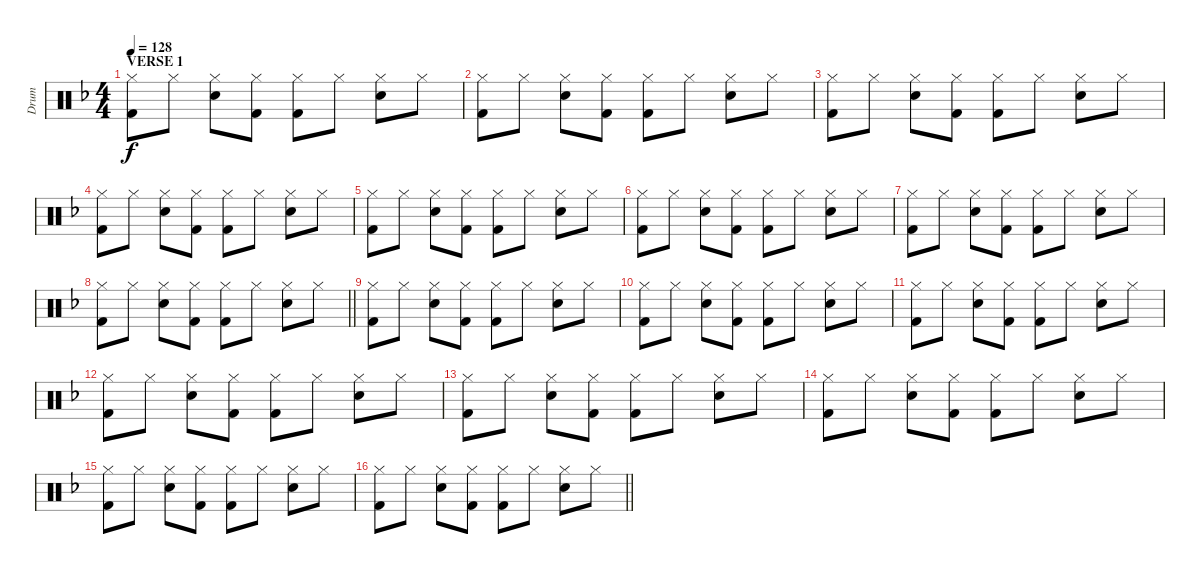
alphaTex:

\track ("Drum" "Drum") {instrument percussion}
\staff {score}
\articulation defaults
\ts (4 4)
\section ("" "VERSE 1")
\tempo 128
\clef neutral
\ks f
("Hi-Hat (closed)" "Kick (hit) 2").8{dy f} "Hi-Hat (closed)".8 ("Hi-Hat (closed)" "Electric Snare (hit)").8 ("Hi-Hat (closed)" "Kick (hit) 2").8 ("Hi-Hat (closed)" "Kick (hit) 2").8 "Hi-Hat (closed)".8 ("Hi-Hat (closed)" "Electric Snare (hit)").8 "Hi-Hat (closed)".8 |
("Hi-Hat (closed)" "Kick (hit) 2").8 "Hi-Hat (closed)".8 ("Hi-Hat (closed)" "Electric Snare (hit)").8 ("Hi-Hat (closed)" "Kick (hit) 2").8 ("Hi-Hat (closed)" "Kick (hit) 2").8 "Hi-Hat (closed)".8 ("Hi-Hat (closed)" "Electric Snare (hit)").8 "Hi-Hat (closed)".8 |
("Hi-Hat (closed)" "Kick (hit) 2").8 "Hi-Hat (closed)".8 ("Hi-Hat (closed)" "Electric Snare (hit)").8 ("Hi-Hat (closed)" "Kick (hit) 2").8 ("Hi-Hat (closed)" "Kick (hit) 2").8 "Hi-Hat (closed)".8 ("Hi-Hat (closed)" "Electric Snare (hit)").8 "Hi-Hat (closed)".8 |
("Hi-Hat (closed)" "Kick (hit) 2").8 "Hi-Hat (closed)".8 ("Hi-Hat (closed)" "Electric Snare (hit)").8 ("Hi-Hat (closed)" "Kick (hit) 2").8 ("Hi-Hat (closed)" "Kick (hit) 2").8 "Hi-Hat (closed)".8 ("Hi-Hat (closed)" "Electric Snare (hit)").8 "Hi-Hat (closed)".8 |
("Hi-Hat (closed)" "Kick (hit) 2").8 "Hi-Hat (closed)".8 ("Hi-Hat (closed)" "Electric Snare (hit)").8 ("Hi-Hat (closed)" "Kick (hit) 2").8 ("Hi-Hat (closed)" "Kick (hit) 2").8 "Hi-Hat (closed)".8 ("Hi-Hat (closed)" "Electric Snare (hit)").8 "Hi-Hat (closed)".8 |
("Hi-Hat (closed)" "Kick (hit) 2").8 "Hi-Hat (closed)".8 ("Hi-Hat (closed)" "Electric Snare (hit)").8 ("Hi-Hat (closed)" "Kick (hit) 2").8 ("Hi-Hat (closed)" "Kick (hit) 2").8 "Hi-Hat (closed)".8 ("Hi-Hat (closed)" "Electric Snare (hit)").8 "Hi-Hat (closed)".8 |
("Hi-Hat (closed)" "Kick (hit) 2").8 "Hi-Hat (closed)".8 ("Hi-Hat (closed)" "Electric Snare (hit)").8 ("Hi-Hat (closed)" "Kick (hit) 2").8 ("Hi-Hat (closed)" "Kick (hit) 2").8 "Hi-Hat (closed)".8 ("Hi-Hat (closed)" "Electric Snare (hit)").8 "Hi-Hat (closed)".8 |
\barLineRight lightlight
("Hi-Hat (closed)" "Kick (hit) 2").8 "Hi-Hat (closed)".8 ("Hi-Hat (closed)" "Electric Snare (hit)").8 ("Hi-Hat (closed)" "Kick (hit) 2").8 ("Hi-Hat (closed)" "Kick (hit) 2").8 "Hi-Hat (closed)".8 ("Hi-Hat (closed)" "Electric Snare (hit)").8 "Hi-Hat (closed)".8 |
("Hi-Hat (closed)" "Kick (hit) 2").8 "Hi-Hat (closed)".8 ("Hi-Hat (closed)" "Electric Snare (hit)").8 ("Hi-Hat (closed)" "Kick (hit) 2").8 ("Hi-Hat (closed)" "Kick (hit) 2").8 "Hi-Hat (closed)".8 ("Hi-Hat (closed)" "Electric Snare (hit)").8 "Hi-Hat (closed)".8 |
("Hi-Hat (closed)" "Kick (hit) 2").8 "Hi-Hat (closed)".8 ("Hi-Hat (closed)" "Electric Snare (hit)").8 ("Hi-Hat (closed)" "Kick (hit) 2").8 ("Hi-Hat (closed)" "Kick (hit) 2").8 "Hi-Hat (closed)".8 ("Hi-Hat (closed)" "Electric Snare (hit)").8 "Hi-Hat (closed)".8 |
("Hi-Hat (closed)" "Kick (hit) 2").8 "Hi-Hat (closed)".8 ("Hi-Hat (closed)" "Electric Snare (hit)").8 ("Hi-Hat (closed)" "Kick (hit) 2").8 ("Hi-Hat (closed)" "Kick (hit) 2").8 "Hi-Hat (closed)".8 ("Hi-Hat (closed)" "Electric Snare (hit)").8 "Hi-Hat (closed)".8 |
("Hi-Hat (closed)" "Kick (hit) 2").8 "Hi-Hat (closed)".8 ("Hi-Hat (closed)" "Electric Snare (hit)").8 ("Hi-Hat (closed)" "Kick (hit) 2").8 ("Hi-Hat (closed)" "Kick (hit) 2").8 "Hi-Hat (closed)".8 ("Hi-Hat (closed)" "Electric Snare (hit)").8 "Hi-Hat (closed)".8 |
("Hi-Hat (closed)" "Kick (hit) 2").8 "Hi-Hat (closed)".8 ("Hi-Hat (closed)" "Electric Snare (hit)").8 ("Hi-Hat (closed)" "Kick (hit) 2").8 ("Hi-Hat (closed)" "Kick (hit) 2").8 "Hi-Hat (closed)".8 ("Hi-Hat (closed)" "Electric Snare (hit)").8 "Hi-Hat (closed)".8 |
("Hi-Hat (closed)" "Kick (hit) 2").8 "Hi-Hat (closed)".8 ("Hi-Hat (closed)" "Electric Snare (hit)").8 ("Hi-Hat (closed)" "Kick (hit) 2").8 ("Hi-Hat (closed)" "Kick (hit) 2").8 "Hi-Hat (closed)".8 ("Hi-Hat (closed)" "Electric Snare (hit)").8 "Hi-Hat (closed)".8 |
("Hi-Hat (closed)" "Kick (hit) 2").8 "Hi-Hat (closed)".8 ("Hi-Hat (closed)" "Electric Snare (hit)").8 ("Hi-Hat (closed)" "Kick (hit) 2").8 ("Hi-Hat (closed)" "Kick (hit) 2").8 "Hi-Hat (closed)".8 ("Hi-Hat (closed)" "Electric Snare (hit)").8 "Hi-Hat (closed)".8 |
\barLineRight lightlight
("Hi-Hat (closed)" "Kick (hit) 2").8 "Hi-Hat (closed)".8 ("Hi-Hat (closed)" "Electric Snare (hit)").8 ("Hi-Hat (closed)" "Kick (hit) 2").8 ("Hi-Hat (closed)" "Kick (hit) 2").8 "Hi-Hat (closed)".8 ("Hi-Hat (closed)" "Electric Snare (hit)").8 "Hi-Hat (closed)".8
